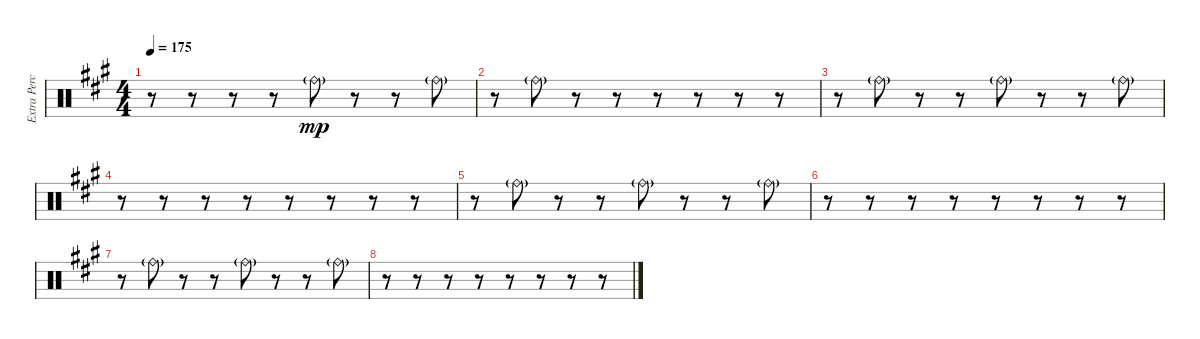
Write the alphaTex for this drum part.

\track ("Extra Percussion" "Extra Perc") {instrument percussion}
\staff {score}
\articulation defaults
\ts (4 4)
\tempo 175
\clef neutral
\ks f#minor
r.8{dy mp} r.8 r.8 r.8 "Ride (bell)"{g}.8 r.8 r.8 "Ride (bell)"{g}.8 |
r.8 "Ride (bell)"{g}.8 r.8 r.8 r.8 r.8 r.8 r.8 |
r.8 "Ride (bell)"{g}.8 r.8 r.8 "Ride (bell)"{g}.8 r.8 r.8 "Ride (bell)"{g}.8 |
r.8 r.8 r.8 r.8 r.8 r.8 r.8 r.8 |
r.8 "Ride (bell)"{g}.8 r.8 r.8 "Ride (bell)"{g}.8 r.8 r.8 "Ride (bell)"{g}.8 |
r.8 r.8 r.8 r.8 r.8 r.8 r.8 r.8 |
r.8 "Ride (bell)"{g}.8 r.8 r.8 "Ride (bell)"{g}.8 r.8 r.8 "Ride (bell)"{g}.8 |
r.8 r.8 r.8 r.8 r.8 r.8 r.8 r.8
